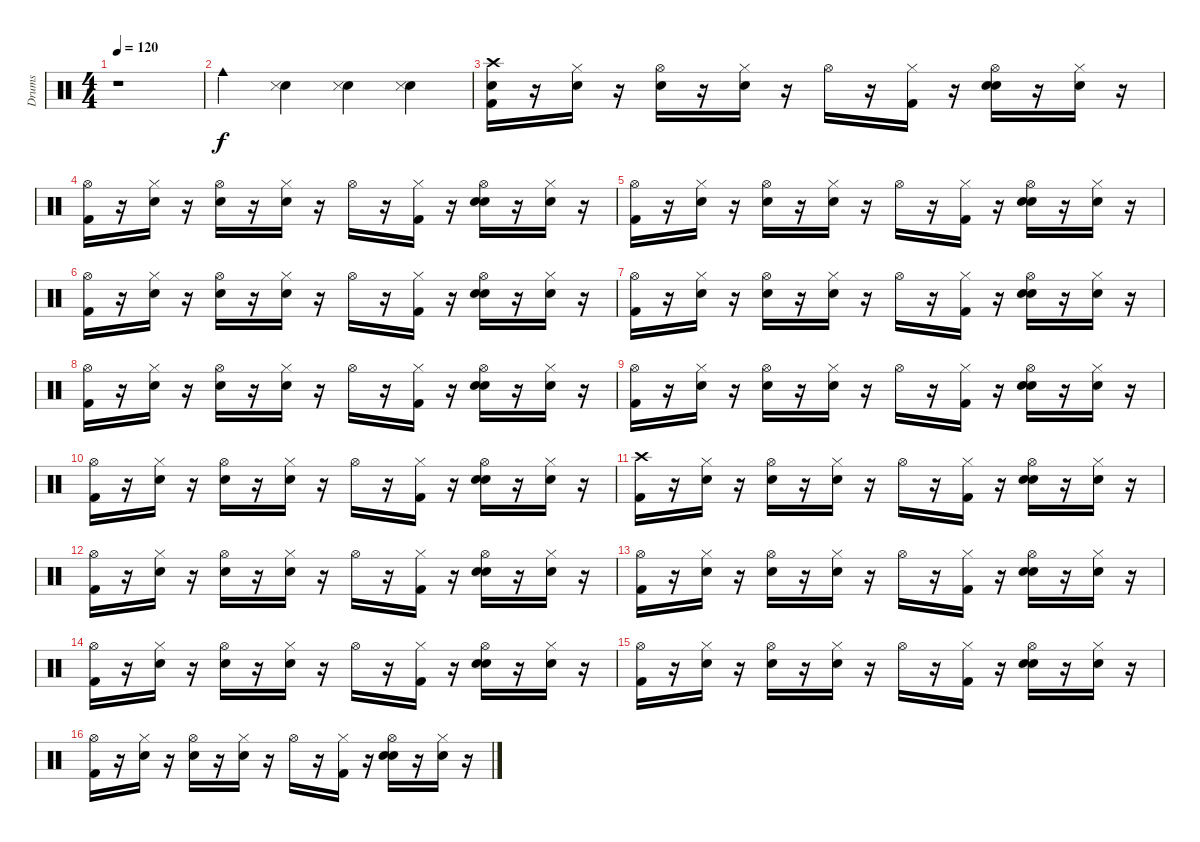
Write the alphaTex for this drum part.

\track ("Drums" "Drums") {instrument percussion}
\staff {score}
\articulation defaults
\ts (4 4)
\tempo 120
\clef neutral
\ks c
r.1{dy f} |
"Cowbell medium (hit)".4 ("Snare (hit)" "Snare (side stick) 3").4 ("Snare (hit)" "Snare (side stick) 3").4 ("Snare (hit)" "Snare (side stick) 3").4 |
("Snare (hit)" "Kick (hit) 2" "Crash high (hit)").16 r.16 ("Snare (hit)" "Hi-Hat (closed)").16 r.16 ("Electric Snare (hit)" "Hi-Hat (open)").16 r.16 ("Snare (hit)" "Hi-Hat (closed)").16 r.16 "Hi-Hat (open)".16 r.16 ("Kick (hit) 2" "Hi-Hat (closed)").16 r.16 ("Snare (hit)" "Electric Snare (hit)" "Hi-Hat (open)").16 r.16 ("Snare (hit)" "Hi-Hat (closed)").16 r.16 |
("Kick (hit) 2" "Hi-Hat (open)").16 r.16 ("Snare (hit)" "Hi-Hat (closed)").16 r.16 ("Electric Snare (hit)" "Hi-Hat (open)").16 r.16 ("Snare (hit)" "Hi-Hat (closed)").16 r.16 "Hi-Hat (open)".16 r.16 ("Kick (hit) 2" "Hi-Hat (closed)").16 r.16 ("Snare (hit)" "Electric Snare (hit)" "Hi-Hat (open)").16 r.16 ("Snare (hit)" "Hi-Hat (closed)").16 r.16 |
("Kick (hit) 2" "Hi-Hat (open)").16 r.16 ("Snare (hit)" "Hi-Hat (closed)").16 r.16 ("Electric Snare (hit)" "Hi-Hat (open)").16 r.16 ("Snare (hit)" "Hi-Hat (closed)").16 r.16 "Hi-Hat (open)".16 r.16 ("Kick (hit) 2" "Hi-Hat (closed)").16 r.16 ("Snare (hit)" "Electric Snare (hit)" "Hi-Hat (open)").16 r.16 ("Snare (hit)" "Hi-Hat (closed)").16 r.16 |
("Kick (hit) 2" "Hi-Hat (open)").16 r.16 ("Snare (hit)" "Hi-Hat (closed)").16 r.16 ("Electric Snare (hit)" "Hi-Hat (open)").16 r.16 ("Snare (hit)" "Hi-Hat (closed)").16 r.16 "Hi-Hat (open)".16 r.16 ("Kick (hit) 2" "Hi-Hat (closed)").16 r.16 ("Snare (hit)" "Electric Snare (hit)" "Hi-Hat (open)").16 r.16 ("Snare (hit)" "Hi-Hat (closed)").16 r.16 |
("Kick (hit) 2" "Hi-Hat (open)").16 r.16 ("Snare (hit)" "Hi-Hat (closed)").16 r.16 ("Electric Snare (hit)" "Hi-Hat (open)").16 r.16 ("Snare (hit)" "Hi-Hat (closed)").16 r.16 "Hi-Hat (open)".16 r.16 ("Kick (hit) 2" "Hi-Hat (closed)").16 r.16 ("Snare (hit)" "Electric Snare (hit)" "Hi-Hat (open)").16 r.16 ("Snare (hit)" "Hi-Hat (closed)").16 r.16 |
("Kick (hit) 2" "Hi-Hat (open)").16 r.16 ("Snare (hit)" "Hi-Hat (closed)").16 r.16 ("Electric Snare (hit)" "Hi-Hat (open)").16 r.16 ("Snare (hit)" "Hi-Hat (closed)").16 r.16 "Hi-Hat (open)".16 r.16 ("Kick (hit) 2" "Hi-Hat (closed)").16 r.16 ("Snare (hit)" "Electric Snare (hit)" "Hi-Hat (open)").16 r.16 ("Snare (hit)" "Hi-Hat (closed)").16 r.16 |
("Kick (hit) 2" "Hi-Hat (open)").16 r.16 ("Snare (hit)" "Hi-Hat (closed)").16 r.16 ("Electric Snare (hit)" "Hi-Hat (open)").16 r.16 ("Snare (hit)" "Hi-Hat (closed)").16 r.16 "Hi-Hat (open)".16 r.16 ("Kick (hit) 2" "Hi-Hat (closed)").16 r.16 ("Snare (hit)" "Electric Snare (hit)" "Hi-Hat (open)").16 r.16 ("Snare (hit)" "Hi-Hat (closed)").16 r.16 |
("Kick (hit) 2" "Hi-Hat (open)").16 r.16 ("Snare (hit)" "Hi-Hat (closed)").16 r.16 ("Electric Snare (hit)" "Hi-Hat (open)").16 r.16 ("Snare (hit)" "Hi-Hat (closed)").16 r.16 "Hi-Hat (open)".16 r.16 ("Kick (hit) 2" "Hi-Hat (closed)").16 r.16 ("Snare (hit)" "Electric Snare (hit)" "Hi-Hat (open)").16 r.16 ("Snare (hit)" "Hi-Hat (closed)").16 r.16 |
("Kick (hit) 2" "Crash high (hit)").16 r.16 ("Snare (hit)" "Hi-Hat (closed)").16 r.16 ("Electric Snare (hit)" "Hi-Hat (open)").16 r.16 ("Snare (hit)" "Hi-Hat (closed)").16 r.16 "Hi-Hat (open)".16 r.16 ("Kick (hit) 2" "Hi-Hat (closed)").16 r.16 ("Snare (hit)" "Electric Snare (hit)" "Hi-Hat (open)").16 r.16 ("Snare (hit)" "Hi-Hat (closed)").16 r.16 |
("Kick (hit) 2" "Hi-Hat (open)").16 r.16 ("Snare (hit)" "Hi-Hat (closed)").16 r.16 ("Electric Snare (hit)" "Hi-Hat (open)").16 r.16 ("Snare (hit)" "Hi-Hat (closed)").16 r.16 "Hi-Hat (open)".16 r.16 ("Kick (hit) 2" "Hi-Hat (closed)").16 r.16 ("Snare (hit)" "Electric Snare (hit)" "Hi-Hat (open)").16 r.16 ("Snare (hit)" "Hi-Hat (closed)").16 r.16 |
("Kick (hit) 2" "Hi-Hat (open)").16 r.16 ("Snare (hit)" "Hi-Hat (closed)").16 r.16 ("Electric Snare (hit)" "Hi-Hat (open)").16 r.16 ("Snare (hit)" "Hi-Hat (closed)").16 r.16 "Hi-Hat (open)".16 r.16 ("Kick (hit) 2" "Hi-Hat (closed)").16 r.16 ("Snare (hit)" "Electric Snare (hit)" "Hi-Hat (open)").16 r.16 ("Snare (hit)" "Hi-Hat (closed)").16 r.16 |
("Kick (hit) 2" "Hi-Hat (open)").16 r.16 ("Snare (hit)" "Hi-Hat (closed)").16 r.16 ("Electric Snare (hit)" "Hi-Hat (open)").16 r.16 ("Snare (hit)" "Hi-Hat (closed)").16 r.16 "Hi-Hat (open)".16 r.16 ("Kick (hit) 2" "Hi-Hat (closed)").16 r.16 ("Snare (hit)" "Electric Snare (hit)" "Hi-Hat (open)").16 r.16 ("Snare (hit)" "Hi-Hat (closed)").16 r.16 |
("Kick (hit) 2" "Hi-Hat (open)").16 r.16 ("Snare (hit)" "Hi-Hat (closed)").16 r.16 ("Electric Snare (hit)" "Hi-Hat (open)").16 r.16 ("Snare (hit)" "Hi-Hat (closed)").16 r.16 "Hi-Hat (open)".16 r.16 ("Kick (hit) 2" "Hi-Hat (closed)").16 r.16 ("Snare (hit)" "Electric Snare (hit)" "Hi-Hat (open)").16 r.16 ("Snare (hit)" "Hi-Hat (closed)").16 r.16 |
("Kick (hit) 2" "Hi-Hat (open)").16 r.16 ("Snare (hit)" "Hi-Hat (closed)").16 r.16 ("Electric Snare (hit)" "Hi-Hat (open)").16 r.16 ("Snare (hit)" "Hi-Hat (closed)").16 r.16 "Hi-Hat (open)".16 r.16 ("Kick (hit) 2" "Hi-Hat (closed)").16 r.16 ("Snare (hit)" "Electric Snare (hit)" "Hi-Hat (open)").16 r.16 ("Snare (hit)" "Hi-Hat (closed)").16 r.16
